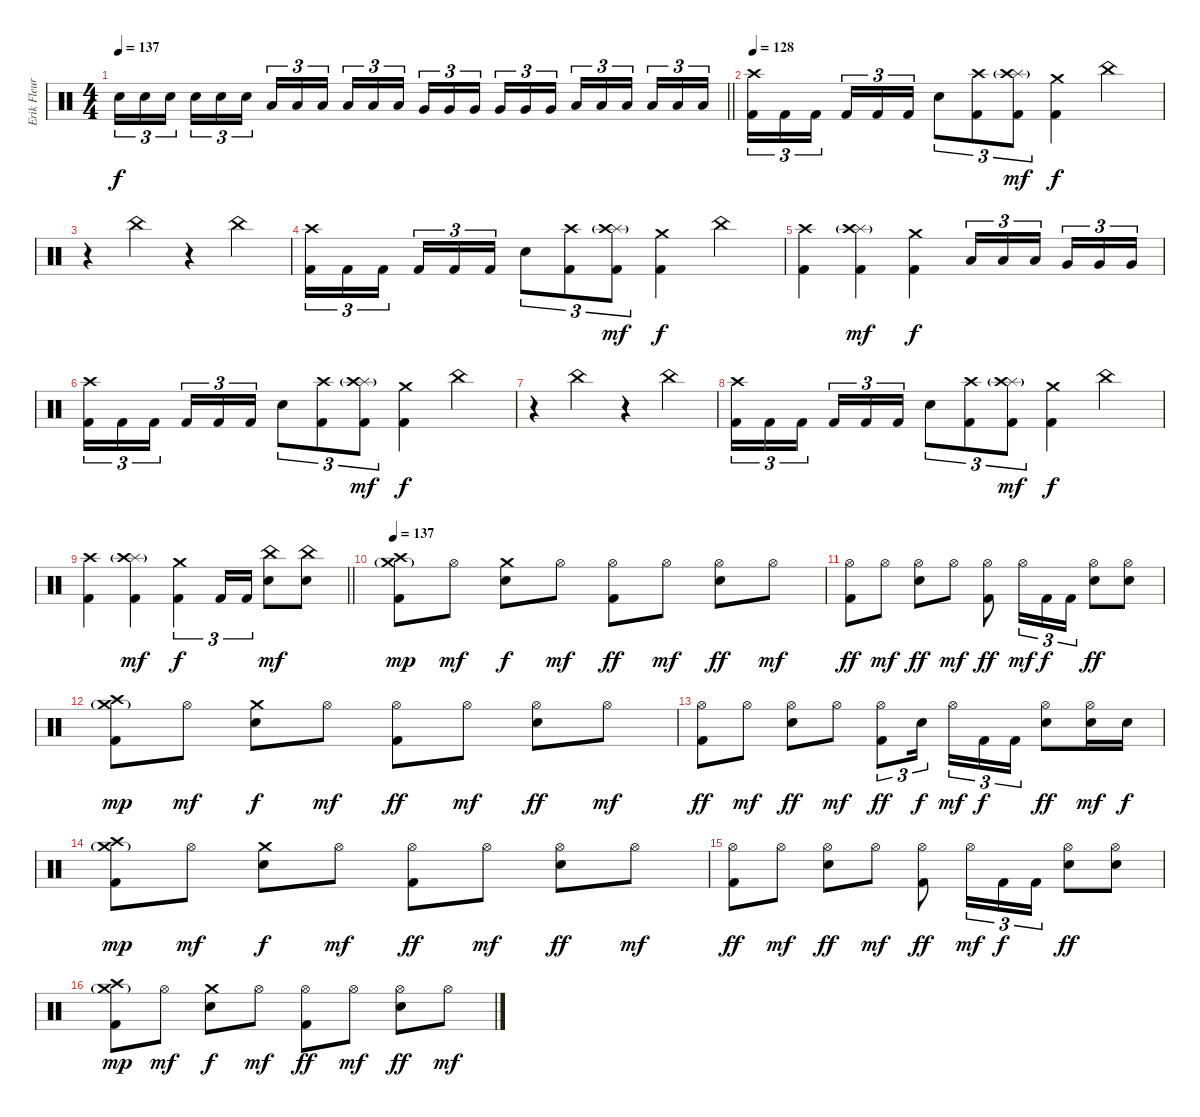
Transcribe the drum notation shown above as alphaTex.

\track ("Erik Fleuren" "Erik Fleur") {instrument percussion}
\staff {score}
\articulation defaults
\ts (4 4)
\tempo 137
\clef neutral
\barLineRight lightlight
\ks c "Electric Snare (hit)".16{tu (3 2) dy f} "Electric Snare (hit)".16{tu (3 2)} "Electric Snare (hit)".16{tu (3 2) beam splitsecondary} "Electric Snare (hit)".16{tu (3 2)} "Electric Snare (hit)".16{tu (3 2)} "Electric Snare (hit)".16{tu (3 2)} "Low Tom (hit)".16{tu (3 2)} "Low Tom (hit)".16{tu (3 2)} "Low Tom (hit)".16{tu (3 2) beam splitsecondary} "Low Tom (hit)".16{tu (3 2)} "Low Tom (hit)".16{tu (3 2)} "Low Tom (hit)".16{tu (3 2)} "Very Low Tom (hit)".16{tu (3 2)} "Very Low Tom (hit)".16{tu (3 2)} "Very Low Tom (hit)".16{tu (3 2) beam splitsecondary} "Very Low Tom (hit)".16{tu (3 2)} "Very Low Tom (hit)".16{tu (3 2)} "Very Low Tom (hit)".16{tu (3 2)} "Low Floor Tom (hit)".16{tu (3 2)} "Low Floor Tom (hit)".16{tu (3 2)} "Low Floor Tom (hit)".16{tu (3 2) beam splitsecondary} "Low Floor Tom (hit)".16{tu (3 2)} "Low Floor Tom (hit)".16{tu (3 2)} "Low Floor Tom (hit)".16{tu (3 2)}
|
\tempo 128
("Crash high (hit)" "Kick (hit) 2").16{tu (3 2)} "Kick (hit) 2".16{tu (3 2)} "Kick (hit) 2".16{tu (3 2) beam splitsecondary} "Kick (hit) 2".16{tu (3 2)} "Kick (hit) 2".16{tu (3 2)} "Kick (hit) 2".16{tu (3 2)} "Electric Snare (hit)".8{tu (3 2)} ("Crash high (hit)" "Kick (hit) 2").8{tu (3 2)} ("Splash (hit)"{g} "Crash high (hit)" "Kick (hit) 2").8{tu (3 2) dy mf} ("Crash medium (hit)" "Kick (hit) 2").4{dy f} "China (hit)".4 |
r.4 "China (hit)".4 r.4 "China (hit)".4 |
("Crash high (hit)" "Kick (hit) 2").16{tu (3 2)} "Kick (hit) 2".16{tu (3 2)} "Kick (hit) 2".16{tu (3 2) beam splitsecondary} "Kick (hit) 2".16{tu (3 2)} "Kick (hit) 2".16{tu (3 2)} "Kick (hit) 2".16{tu (3 2)} "Electric Snare (hit)".8{tu (3 2)} ("Crash high (hit)" "Kick (hit) 2").8{tu (3 2)} ("Splash (hit)"{g} "Crash high (hit)" "Kick (hit) 2").8{tu (3 2) dy mf} ("Crash medium (hit)" "Kick (hit) 2").4{dy f} "China (hit)".4 |
("Crash high (hit)" "Kick (hit) 2").4 ("Splash (hit)"{g} "Crash high (hit)" "Kick (hit) 2").4{dy mf} ("Crash medium (hit)" "Kick (hit) 2").4{dy f} "Low Tom (hit)".16{tu (3 2)} "Low Tom (hit)".16{tu (3 2)} "Low Tom (hit)".16{tu (3 2) beam splitsecondary} "Very Low Tom (hit)".16{tu (3 2)} "Very Low Tom (hit)".16{tu (3 2)} "Very Low Tom (hit)".16{tu (3 2)} |
("Crash high (hit)" "Kick (hit) 2").16{tu (3 2)} "Kick (hit) 2".16{tu (3 2)} "Kick (hit) 2".16{tu (3 2) beam splitsecondary} "Kick (hit) 2".16{tu (3 2)} "Kick (hit) 2".16{tu (3 2)} "Kick (hit) 2".16{tu (3 2)} "Electric Snare (hit)".8{tu (3 2)} ("Crash high (hit)" "Kick (hit) 2").8{tu (3 2)} ("Splash (hit)"{g} "Crash high (hit)" "Kick (hit) 2").8{tu (3 2) dy mf} ("Crash medium (hit)" "Kick (hit) 2").4{dy f} "China (hit)".4 |
r.4 "China (hit)".4 r.4 "China (hit)".4 |
("Crash high (hit)" "Kick (hit) 2").16{tu (3 2)} "Kick (hit) 2".16{tu (3 2)} "Kick (hit) 2".16{tu (3 2) beam splitsecondary} "Kick (hit) 2".16{tu (3 2)} "Kick (hit) 2".16{tu (3 2)} "Kick (hit) 2".16{tu (3 2)} "Electric Snare (hit)".8{tu (3 2)} ("Crash high (hit)" "Kick (hit) 2").8{tu (3 2)} ("Splash (hit)"{g} "Crash high (hit)" "Kick (hit) 2").8{tu (3 2) dy mf} ("Crash medium (hit)" "Kick (hit) 2").4{dy f} "China (hit)".4 |
\barLineRight lightlight
("Crash high (hit)" "Kick (hit) 2").4 ("Splash (hit)"{g} "Crash high (hit)" "Kick (hit) 2").4{dy mf} ("Crash medium (hit)" "Kick (hit) 2").4{tu (3 2) dy f} "Kick (hit) 2".16{tu (3 2)} "Kick (hit) 2".16{tu (3 2)} ("China (hit)" "Electric Snare (hit)").8{dy mf} ("China (hit)" "Electric Snare (hit)").8 |
\tempo 137
("Crash high (hit)" "Crash medium (hit)"{g} "Kick (hit) 2").8{dy mp} "Hi-Hat (open)".8{dy mf} ("Crash medium (hit)" "Electric Snare (hit)").8{dy f} "Hi-Hat (open)".8{dy mf} ("Hi-Hat (open)" "Kick (hit) 2").8{dy ff} "Hi-Hat (open)".8{dy mf} ("Hi-Hat (open)" "Electric Snare (hit)").8{dy ff} "Hi-Hat (open)".8{dy mf} |
("Hi-Hat (open)" "Kick (hit) 2").8{dy ff} "Hi-Hat (open)".8{dy mf} ("Hi-Hat (open)" "Electric Snare (hit)").8{dy ff} "Hi-Hat (open)".8{dy mf} ("Hi-Hat (open)" "Kick (hit) 2").8{dy ff} "Hi-Hat (open)".16{tu (3 2) dy mf} "Kick (hit) 2".16{tu (3 2) dy f} "Kick (hit) 2".16{tu (3 2)} ("Hi-Hat (open)" "Electric Snare (hit)").8{dy ff} ("Hi-Hat (open)" "Electric Snare (hit)").8 |
("Crash high (hit)" "Crash medium (hit)"{g} "Kick (hit) 2").8{dy mp} "Hi-Hat (open)".8{dy mf} ("Crash medium (hit)" "Electric Snare (hit)").8{dy f} "Hi-Hat (open)".8{dy mf} ("Hi-Hat (open)" "Kick (hit) 2").8{dy ff} "Hi-Hat (open)".8{dy mf} ("Hi-Hat (open)" "Electric Snare (hit)").8{dy ff} "Hi-Hat (open)".8{dy mf} |
("Hi-Hat (open)" "Kick (hit) 2").8{dy ff} "Hi-Hat (open)".8{dy mf} ("Hi-Hat (open)" "Electric Snare (hit)").8{dy ff} "Hi-Hat (open)".8{dy mf} ("Hi-Hat (open)" "Kick (hit) 2").8{tu (3 2) dy ff} "Electric Snare (hit)".16{tu (3 2) dy f beam splitsecondary} "Hi-Hat (open)".16{tu (3 2) dy mf} "Kick (hit) 2".16{tu (3 2) dy f} "Kick (hit) 2".16{tu (3 2)} ("Hi-Hat (open)" "Electric Snare (hit)").8{dy ff} ("Hi-Hat (open)" "Electric Snare (hit)").16{dy mf} "Electric Snare (hit)".16{dy f} |
("Crash high (hit)" "Crash medium (hit)"{g} "Kick (hit) 2").8{dy mp} "Hi-Hat (open)".8{dy mf} ("Crash medium (hit)" "Electric Snare (hit)").8{dy f} "Hi-Hat (open)".8{dy mf} ("Hi-Hat (open)" "Kick (hit) 2").8{dy ff} "Hi-Hat (open)".8{dy mf} ("Hi-Hat (open)" "Electric Snare (hit)").8{dy ff} "Hi-Hat (open)".8{dy mf} |
("Hi-Hat (open)" "Kick (hit) 2").8{dy ff} "Hi-Hat (open)".8{dy mf} ("Hi-Hat (open)" "Electric Snare (hit)").8{dy ff} "Hi-Hat (open)".8{dy mf} ("Hi-Hat (open)" "Kick (hit) 2").8{dy ff} "Hi-Hat (open)".16{tu (3 2) dy mf} "Kick (hit) 2".16{tu (3 2) dy f} "Kick (hit) 2".16{tu (3 2)} ("Hi-Hat (open)" "Electric Snare (hit)").8{dy ff} ("Hi-Hat (open)" "Electric Snare (hit)").8 |
("Crash high (hit)" "Crash medium (hit)"{g} "Kick (hit) 2").8{dy mp} "Hi-Hat (open)".8{dy mf} ("Crash medium (hit)" "Electric Snare (hit)").8{dy f} "Hi-Hat (open)".8{dy mf} ("Hi-Hat (open)" "Kick (hit) 2").8{dy ff} "Hi-Hat (open)".8{dy mf} ("Hi-Hat (open)" "Electric Snare (hit)").8{dy ff} "Hi-Hat (open)".8{dy mf}
